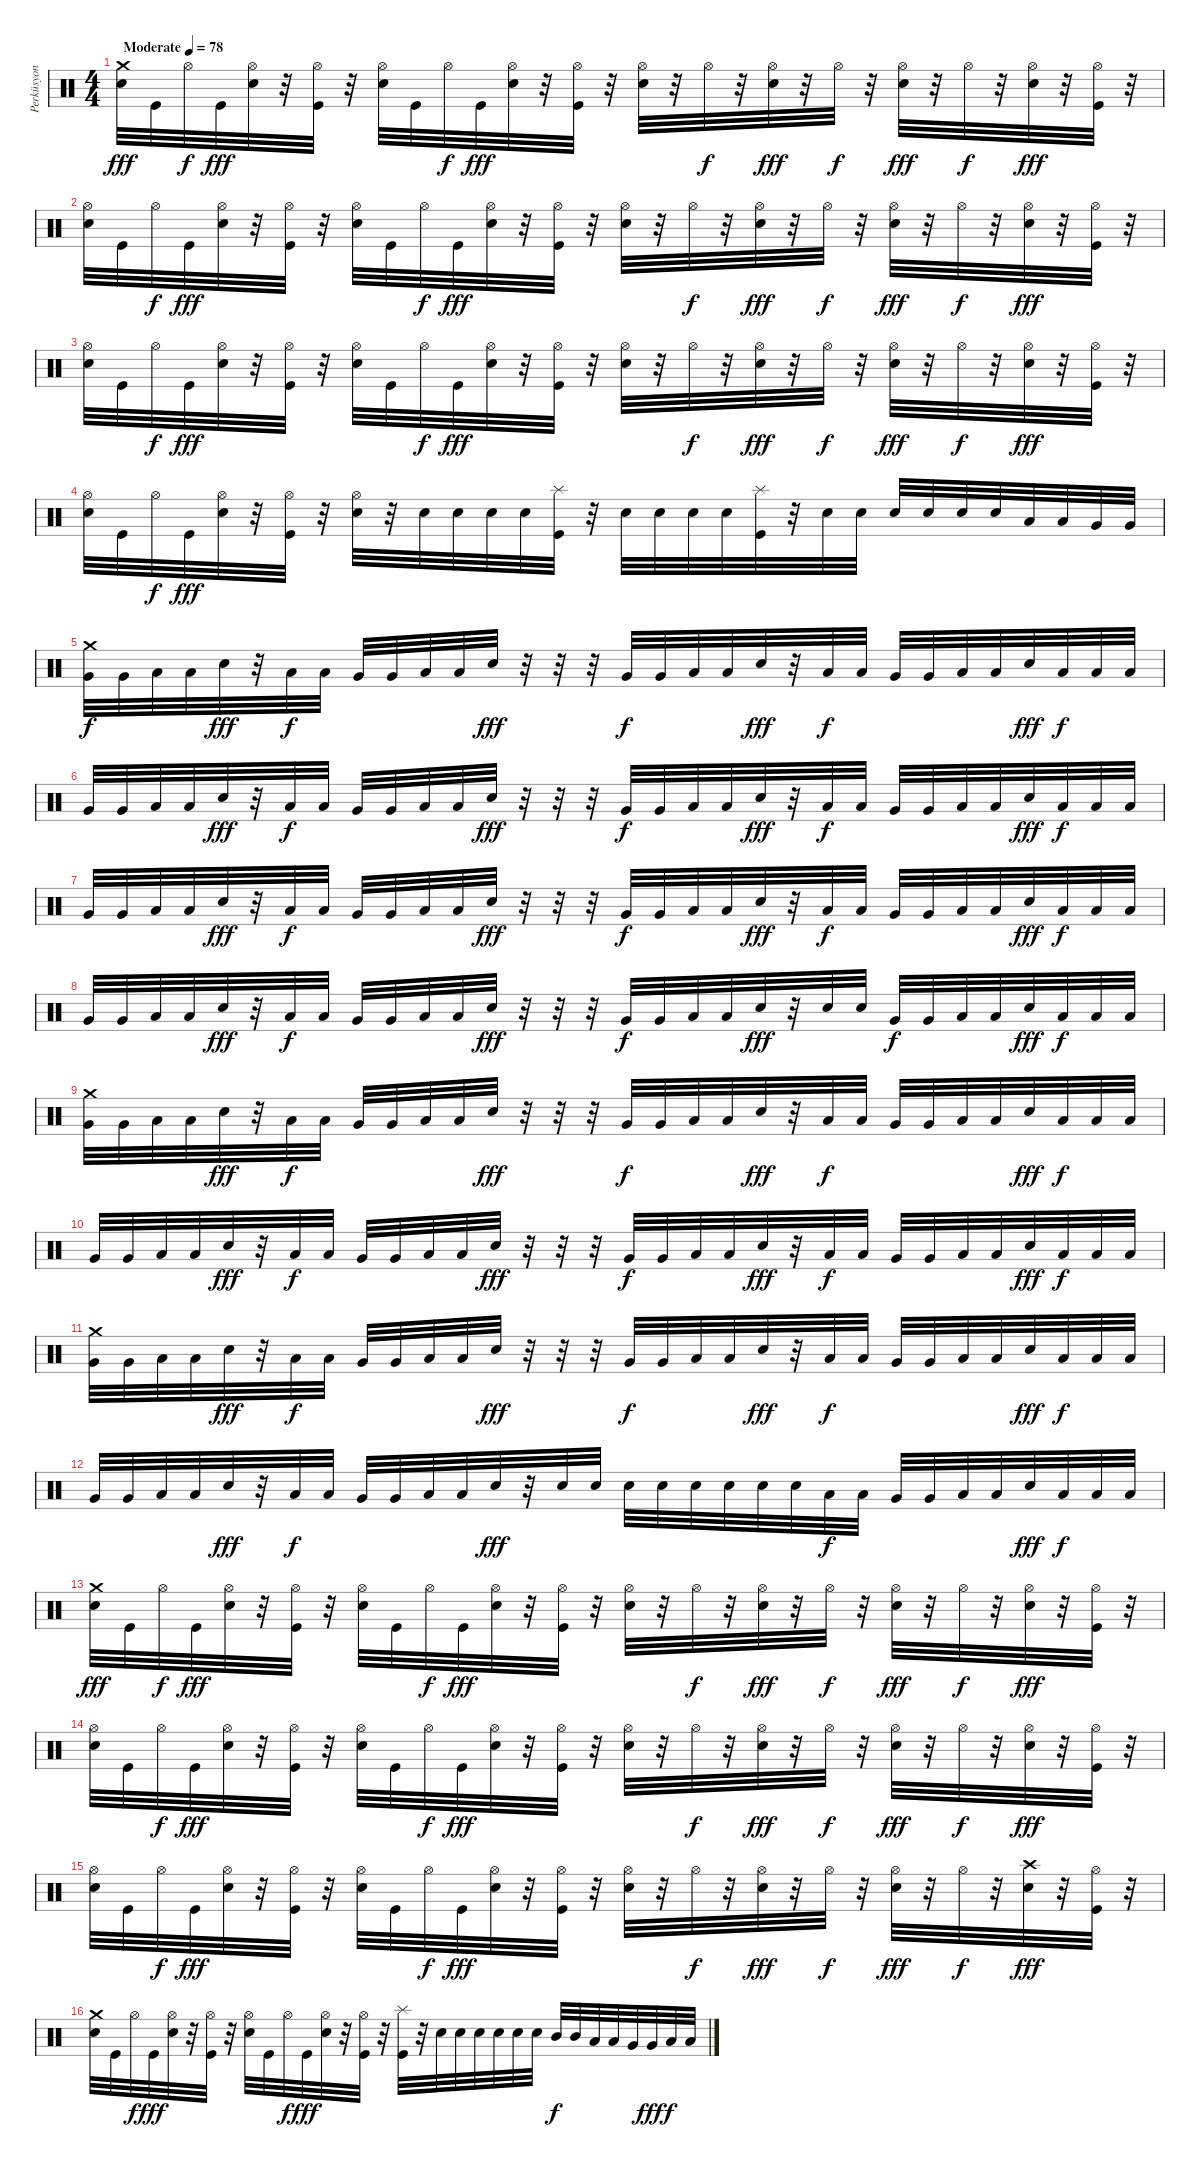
\track ("Perküsyon" "Perküsyon") {instrument percussion}
\staff {score}
\articulation defaults
\ts (4 4)
\tempo (78 "Moderate")
\clef neutral
\ks c
("Electric Snare (hit)" "Crash medium (hit)").32{dy fff} "Kick (hit)".32 "Hi-Hat (open)".32{dy f} "Kick (hit)".32{dy fff} ("Hi-Hat (open)" "Electric Snare (hit)").32 r.32 ("Hi-Hat (open)" "Kick (hit)").32 r.32 ("Hi-Hat (open)" "Electric Snare (hit)").32 "Kick (hit)".32 "Hi-Hat (open)".32{dy f} "Kick (hit)".32{dy fff} ("Hi-Hat (open)" "Electric Snare (hit)").32 r.32 ("Hi-Hat (open)" "Kick (hit)").32 r.32 ("Hi-Hat (open)" "Electric Snare (hit)").32 r.32 "Hi-Hat (open)".32{dy f} r.32 ("Hi-Hat (open)" "Electric Snare (hit)").32{dy fff} r.32 "Hi-Hat (open)".32{dy f} r.32 ("Hi-Hat (open)" "Electric Snare (hit)").32{dy fff} r.32 "Hi-Hat (open)".32{dy f} r.32 ("Hi-Hat (open)" "Electric Snare (hit)").32{dy fff} r.32 ("Hi-Hat (open)" "Kick (hit)").32 r.32 |
("Hi-Hat (open)" "Electric Snare (hit)").32 "Kick (hit)".32 "Hi-Hat (open)".32{dy f} "Kick (hit)".32{dy fff} ("Hi-Hat (open)" "Electric Snare (hit)").32 r.32 ("Hi-Hat (open)" "Kick (hit)").32 r.32 ("Hi-Hat (open)" "Electric Snare (hit)").32 "Kick (hit)".32 "Hi-Hat (open)".32{dy f} "Kick (hit)".32{dy fff} ("Hi-Hat (open)" "Electric Snare (hit)").32 r.32 ("Hi-Hat (open)" "Kick (hit)").32 r.32 ("Hi-Hat (open)" "Electric Snare (hit)").32 r.32 "Hi-Hat (open)".32{dy f} r.32 ("Hi-Hat (open)" "Electric Snare (hit)").32{dy fff} r.32 "Hi-Hat (open)".32{dy f} r.32 ("Hi-Hat (open)" "Electric Snare (hit)").32{dy fff} r.32 "Hi-Hat (open)".32{dy f} r.32 ("Hi-Hat (open)" "Electric Snare (hit)").32{dy fff} r.32 ("Hi-Hat (open)" "Kick (hit)").32 r.32 |
("Hi-Hat (open)" "Electric Snare (hit)").32 "Kick (hit)".32 "Hi-Hat (open)".32{dy f} "Kick (hit)".32{dy fff} ("Hi-Hat (open)" "Electric Snare (hit)").32 r.32 ("Hi-Hat (open)" "Kick (hit)").32 r.32 ("Hi-Hat (open)" "Electric Snare (hit)").32 "Kick (hit)".32 "Hi-Hat (open)".32{dy f} "Kick (hit)".32{dy fff} ("Hi-Hat (open)" "Electric Snare (hit)").32 r.32 ("Hi-Hat (open)" "Kick (hit)").32 r.32 ("Hi-Hat (open)" "Electric Snare (hit)").32 r.32 "Hi-Hat (open)".32{dy f} r.32 ("Hi-Hat (open)" "Electric Snare (hit)").32{dy fff} r.32 "Hi-Hat (open)".32{dy f} r.32 ("Hi-Hat (open)" "Electric Snare (hit)").32{dy fff} r.32 "Hi-Hat (open)".32{dy f} r.32 ("Hi-Hat (open)" "Electric Snare (hit)").32{dy fff} r.32 ("Hi-Hat (open)" "Kick (hit)").32 r.32 |
("Hi-Hat (open)" "Electric Snare (hit)").32 "Kick (hit)".32 "Hi-Hat (open)".32{dy f} "Kick (hit)".32{dy fff} ("Hi-Hat (open)" "Electric Snare (hit)").32 r.32 ("Hi-Hat (open)" "Kick (hit)").32 r.32 ("Hi-Hat (open)" "Electric Snare (hit)").32 r.32 "Electric Snare (hit)".32 "Electric Snare (hit)".32 "Electric Snare (hit)".32 "Electric Snare (hit)".32 ("Splash (hit)" "Kick (hit)").32 r.32 "Electric Snare (hit)".32 "Electric Snare (hit)".32 "Electric Snare (hit)".32 "Electric Snare (hit)".32 ("Splash (hit)" "Kick (hit)").32 r.32 "Electric Snare (hit)".32 "Electric Snare (hit)".32 "Electric Snare (hit)".32 "Electric Snare (hit)".32 "Electric Snare (hit)".32 "Electric Snare (hit)".32 "Low Tom (hit)".32 "Low Tom (hit)".32 "Very Low Tom (hit)".32 "Very Low Tom (hit)".32 |
("Very Low Tom (hit)" "Crash medium (hit)").32{dy f} "Very Low Tom (hit)".32 "Low Floor Tom (hit)".32 "Low Floor Tom (hit)".32 "Electric Snare (hit)".32{dy fff} r.32 "Low Floor Tom (hit)".32{dy f} "Low Floor Tom (hit)".32 "Very Low Tom (hit)".32 "Very Low Tom (hit)".32 "Low Floor Tom (hit)".32 "Low Floor Tom (hit)".32 "Electric Snare (hit)".32{dy fff} r.32 r.32 r.32 "Very Low Tom (hit)".32{dy f} "Very Low Tom (hit)".32 "Low Floor Tom (hit)".32 "Low Floor Tom (hit)".32 "Electric Snare (hit)".32{dy fff} r.32 "Low Floor Tom (hit)".32{dy f} "Low Floor Tom (hit)".32 "Very Low Tom (hit)".32 "Very Low Tom (hit)".32 "Low Floor Tom (hit)".32 "Low Floor Tom (hit)".32 "Electric Snare (hit)".32{dy fff} "Low Floor Tom (hit)".32{dy f} "Low Floor Tom (hit)".32 "Low Floor Tom (hit)".32 |
"Very Low Tom (hit)".32 "Very Low Tom (hit)".32 "Low Floor Tom (hit)".32 "Low Floor Tom (hit)".32 "Electric Snare (hit)".32{dy fff} r.32 "Low Floor Tom (hit)".32{dy f} "Low Floor Tom (hit)".32 "Very Low Tom (hit)".32 "Very Low Tom (hit)".32 "Low Floor Tom (hit)".32 "Low Floor Tom (hit)".32 "Electric Snare (hit)".32{dy fff} r.32 r.32 r.32 "Very Low Tom (hit)".32{dy f} "Very Low Tom (hit)".32 "Low Floor Tom (hit)".32 "Low Floor Tom (hit)".32 "Electric Snare (hit)".32{dy fff} r.32 "Low Floor Tom (hit)".32{dy f} "Low Floor Tom (hit)".32 "Very Low Tom (hit)".32 "Very Low Tom (hit)".32 "Low Floor Tom (hit)".32 "Low Floor Tom (hit)".32 "Electric Snare (hit)".32{dy fff} "Low Floor Tom (hit)".32{dy f} "Low Floor Tom (hit)".32 "Low Floor Tom (hit)".32 |
"Very Low Tom (hit)".32 "Very Low Tom (hit)".32 "Low Floor Tom (hit)".32 "Low Floor Tom (hit)".32 "Electric Snare (hit)".32{dy fff} r.32 "Low Floor Tom (hit)".32{dy f} "Low Floor Tom (hit)".32 "Very Low Tom (hit)".32 "Very Low Tom (hit)".32 "Low Floor Tom (hit)".32 "Low Floor Tom (hit)".32 "Electric Snare (hit)".32{dy fff} r.32 r.32 r.32 "Very Low Tom (hit)".32{dy f} "Very Low Tom (hit)".32 "Low Floor Tom (hit)".32 "Low Floor Tom (hit)".32 "Electric Snare (hit)".32{dy fff} r.32 "Low Floor Tom (hit)".32{dy f} "Low Floor Tom (hit)".32 "Very Low Tom (hit)".32 "Very Low Tom (hit)".32 "Low Floor Tom (hit)".32 "Low Floor Tom (hit)".32 "Electric Snare (hit)".32{dy fff} "Low Floor Tom (hit)".32{dy f} "Low Floor Tom (hit)".32 "Low Floor Tom (hit)".32 |
"Very Low Tom (hit)".32 "Very Low Tom (hit)".32 "Low Floor Tom (hit)".32 "Low Floor Tom (hit)".32 "Electric Snare (hit)".32{dy fff} r.32 "Low Floor Tom (hit)".32{dy f} "Low Floor Tom (hit)".32 "Very Low Tom (hit)".32 "Very Low Tom (hit)".32 "Low Floor Tom (hit)".32 "Low Floor Tom (hit)".32 "Electric Snare (hit)".32{dy fff} r.32 r.32 r.32 "Very Low Tom (hit)".32{dy f} "Very Low Tom (hit)".32 "Low Floor Tom (hit)".32 "Low Floor Tom (hit)".32 "Electric Snare (hit)".32{dy fff} r.32 "Electric Snare (hit)".32 "Electric Snare (hit)".32 "Very Low Tom (hit)".32{dy f} "Very Low Tom (hit)".32 "Low Floor Tom (hit)".32 "Low Floor Tom (hit)".32 "Electric Snare (hit)".32{dy fff} "Low Floor Tom (hit)".32{dy f} "Low Floor Tom (hit)".32 "Low Floor Tom (hit)".32 |
("Very Low Tom (hit)" "Crash medium (hit)").32 "Very Low Tom (hit)".32 "Low Floor Tom (hit)".32 "Low Floor Tom (hit)".32 "Electric Snare (hit)".32{dy fff} r.32 "Low Floor Tom (hit)".32{dy f} "Low Floor Tom (hit)".32 "Very Low Tom (hit)".32 "Very Low Tom (hit)".32 "Low Floor Tom (hit)".32 "Low Floor Tom (hit)".32 "Electric Snare (hit)".32{dy fff} r.32 r.32 r.32 "Very Low Tom (hit)".32{dy f} "Very Low Tom (hit)".32 "Low Floor Tom (hit)".32 "Low Floor Tom (hit)".32 "Electric Snare (hit)".32{dy fff} r.32 "Low Floor Tom (hit)".32{dy f} "Low Floor Tom (hit)".32 "Very Low Tom (hit)".32 "Very Low Tom (hit)".32 "Low Floor Tom (hit)".32 "Low Floor Tom (hit)".32 "Electric Snare (hit)".32{dy fff} "Low Floor Tom (hit)".32{dy f} "Low Floor Tom (hit)".32 "Low Floor Tom (hit)".32 |
"Very Low Tom (hit)".32 "Very Low Tom (hit)".32 "Low Floor Tom (hit)".32 "Low Floor Tom (hit)".32 "Electric Snare (hit)".32{dy fff} r.32 "Low Floor Tom (hit)".32{dy f} "Low Floor Tom (hit)".32 "Very Low Tom (hit)".32 "Very Low Tom (hit)".32 "Low Floor Tom (hit)".32 "Low Floor Tom (hit)".32 "Electric Snare (hit)".32{dy fff} r.32 r.32 r.32 "Very Low Tom (hit)".32{dy f} "Very Low Tom (hit)".32 "Low Floor Tom (hit)".32 "Low Floor Tom (hit)".32 "Electric Snare (hit)".32{dy fff} r.32 "Low Floor Tom (hit)".32{dy f} "Low Floor Tom (hit)".32 "Very Low Tom (hit)".32 "Very Low Tom (hit)".32 "Low Floor Tom (hit)".32 "Low Floor Tom (hit)".32 "Electric Snare (hit)".32{dy fff} "Low Floor Tom (hit)".32{dy f} "Low Floor Tom (hit)".32 "Low Floor Tom (hit)".32 |
("Very Low Tom (hit)" "Crash medium (hit)").32 "Very Low Tom (hit)".32 "Low Floor Tom (hit)".32 "Low Floor Tom (hit)".32 "Electric Snare (hit)".32{dy fff} r.32 "Low Floor Tom (hit)".32{dy f} "Low Floor Tom (hit)".32 "Very Low Tom (hit)".32 "Very Low Tom (hit)".32 "Low Floor Tom (hit)".32 "Low Floor Tom (hit)".32 "Electric Snare (hit)".32{dy fff} r.32 r.32 r.32 "Very Low Tom (hit)".32{dy f} "Very Low Tom (hit)".32 "Low Floor Tom (hit)".32 "Low Floor Tom (hit)".32 "Electric Snare (hit)".32{dy fff} r.32 "Low Floor Tom (hit)".32{dy f} "Low Floor Tom (hit)".32 "Very Low Tom (hit)".32 "Very Low Tom (hit)".32 "Low Floor Tom (hit)".32 "Low Floor Tom (hit)".32 "Electric Snare (hit)".32{dy fff} "Low Floor Tom (hit)".32{dy f} "Low Floor Tom (hit)".32 "Low Floor Tom (hit)".32 |
"Very Low Tom (hit)".32 "Very Low Tom (hit)".32 "Low Floor Tom (hit)".32 "Low Floor Tom (hit)".32 "Electric Snare (hit)".32{dy fff} r.32 "Low Floor Tom (hit)".32{dy f} "Low Floor Tom (hit)".32 "Very Low Tom (hit)".32 "Very Low Tom (hit)".32 "Low Floor Tom (hit)".32 "Low Floor Tom (hit)".32 "Electric Snare (hit)".32{dy fff} r.32 "Electric Snare (hit)".32 "Electric Snare (hit)".32 "Electric Snare (hit)".32 "Electric Snare (hit)".32 "Electric Snare (hit)".32 "Electric Snare (hit)".32 "Electric Snare (hit)".32 "Electric Snare (hit)".32 "Low Floor Tom (hit)".32{dy f} "Low Floor Tom (hit)".32 "Very Low Tom (hit)".32 "Very Low Tom (hit)".32 "Low Floor Tom (hit)".32 "Low Floor Tom (hit)".32 "Electric Snare (hit)".32{dy fff} "Low Floor Tom (hit)".32{dy f} "Low Floor Tom (hit)".32 "Low Floor Tom (hit)".32 |
("Electric Snare (hit)" "Crash medium (hit)").32{dy fff} "Kick (hit)".32 "Hi-Hat (open)".32{dy f} "Kick (hit)".32{dy fff} ("Hi-Hat (open)" "Electric Snare (hit)").32 r.32 ("Hi-Hat (open)" "Kick (hit)").32 r.32 ("Hi-Hat (open)" "Electric Snare (hit)").32 "Kick (hit)".32 "Hi-Hat (open)".32{dy f} "Kick (hit)".32{dy fff} ("Hi-Hat (open)" "Electric Snare (hit)").32 r.32 ("Hi-Hat (open)" "Kick (hit)").32 r.32 ("Hi-Hat (open)" "Electric Snare (hit)").32 r.32 "Hi-Hat (open)".32{dy f} r.32 ("Hi-Hat (open)" "Electric Snare (hit)").32{dy fff} r.32 "Hi-Hat (open)".32{dy f} r.32 ("Hi-Hat (open)" "Electric Snare (hit)").32{dy fff} r.32 "Hi-Hat (open)".32{dy f} r.32 ("Hi-Hat (open)" "Electric Snare (hit)").32{dy fff} r.32 ("Hi-Hat (open)" "Kick (hit)").32 r.32 |
("Hi-Hat (open)" "Electric Snare (hit)").32 "Kick (hit)".32 "Hi-Hat (open)".32{dy f} "Kick (hit)".32{dy fff} ("Hi-Hat (open)" "Electric Snare (hit)").32 r.32 ("Hi-Hat (open)" "Kick (hit)").32 r.32 ("Hi-Hat (open)" "Electric Snare (hit)").32 "Kick (hit)".32 "Hi-Hat (open)".32{dy f} "Kick (hit)".32{dy fff} ("Hi-Hat (open)" "Electric Snare (hit)").32 r.32 ("Hi-Hat (open)" "Kick (hit)").32 r.32 ("Hi-Hat (open)" "Electric Snare (hit)").32 r.32 "Hi-Hat (open)".32{dy f} r.32 ("Hi-Hat (open)" "Electric Snare (hit)").32{dy fff} r.32 "Hi-Hat (open)".32{dy f} r.32 ("Hi-Hat (open)" "Electric Snare (hit)").32{dy fff} r.32 "Hi-Hat (open)".32{dy f} r.32 ("Hi-Hat (open)" "Electric Snare (hit)").32{dy fff} r.32 ("Hi-Hat (open)" "Kick (hit)").32 r.32 |
("Hi-Hat (open)" "Electric Snare (hit)").32 "Kick (hit)".32 "Hi-Hat (open)".32{dy f} "Kick (hit)".32{dy fff} ("Hi-Hat (open)" "Electric Snare (hit)").32 r.32 ("Hi-Hat (open)" "Kick (hit)").32 r.32 ("Hi-Hat (open)" "Electric Snare (hit)").32 "Kick (hit)".32 "Hi-Hat (open)".32{dy f} "Kick (hit)".32{dy fff} ("Hi-Hat (open)" "Electric Snare (hit)").32 r.32 ("Hi-Hat (open)" "Kick (hit)").32 r.32 ("Hi-Hat (open)" "Electric Snare (hit)").32 r.32 "Hi-Hat (open)".32{dy f} r.32 ("Hi-Hat (open)" "Electric Snare (hit)").32{dy fff} r.32 "Hi-Hat (open)".32{dy f} r.32 ("Hi-Hat (open)" "Electric Snare (hit)").32{dy fff} r.32 "Hi-Hat (open)".32{dy f} r.32 ("Electric Snare (hit)" "Crash high (hit)").32{dy fff} r.32 ("Hi-Hat (open)" "Kick (hit)").32 r.32 |
("Electric Snare (hit)" "Crash medium (hit)").32 "Kick (hit)".32 "Hi-Hat (open)".32{dy f} "Kick (hit)".32{dy fff} ("Hi-Hat (open)" "Electric Snare (hit)").32 r.32 ("Hi-Hat (open)" "Kick (hit)").32 r.32 ("Hi-Hat (open)" "Electric Snare (hit)").32 "Kick (hit)".32 "Hi-Hat (open)".32{dy f} "Kick (hit)".32{dy fff} ("Hi-Hat (open)" "Electric Snare (hit)").32 r.32 ("Hi-Hat (open)" "Kick (hit)").32 r.32 ("Splash (hit)" "Kick (hit)").32 r.32 "Electric Snare (hit)".32 "Electric Snare (hit)".32 "Electric Snare (hit)".32 "Electric Snare (hit)".32 "Electric Snare (hit)".32 "Electric Snare (hit)".32 "Mid Tom (hit)".32{dy f} "Mid Tom (hit)".32 "Low Tom (hit)".32 "Low Tom (hit)".32 "Very Low Tom (hit)".32 "Very Low Tom (hit)".32{dy fff} "Low Floor Tom (hit)".32{dy f} "Low Floor Tom (hit)".32
